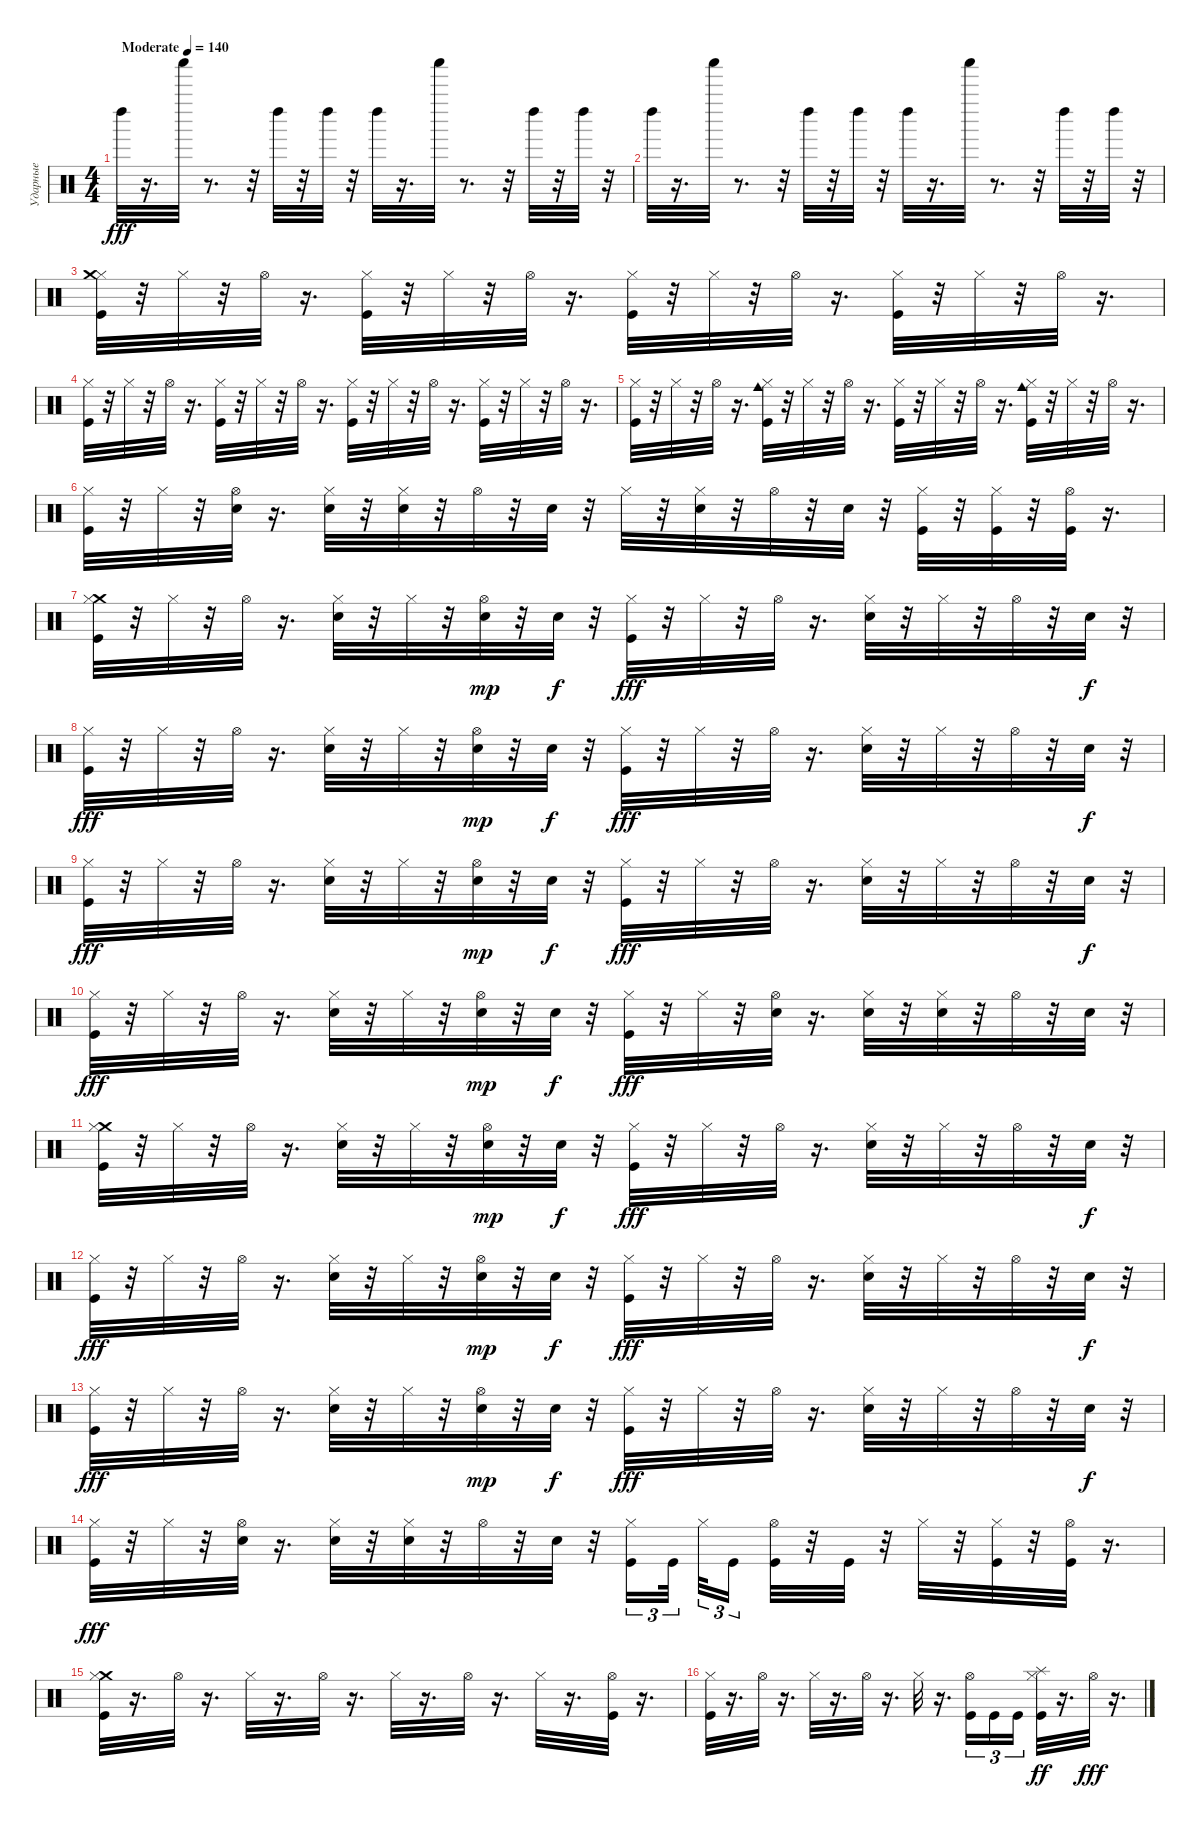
\track ("Ударные" "Ударные") {instrument percussion}
\staff {score}
\articulation defaults
\ts (4 4)
\tempo (140 "Moderate")
\clef neutral
\ks c "Left Maraca (hit)".32{dy fff}
r.16{d} "Shaker (hit)".32 r.8{d} r.32 "Left Maraca (hit)".32 r.32 "Left Maraca (hit)".32 r.32 "Left Maraca (hit)".32 r.16{d} "Shaker (hit)".32 r.8{d} r.32 "Left Maraca (hit)".32 r.32 "Left Maraca (hit)".32 r.32 |
"Left Maraca (hit)".32 r.16{d} "Shaker (hit)".32 r.8{d} r.32 "Left Maraca (hit)".32 r.32 "Left Maraca (hit)".32 r.32 "Left Maraca (hit)".32 r.16{d} "Shaker (hit)".32 r.8{d} r.32 "Left Maraca (hit)".32 r.32 "Left Maraca (hit)".32 r.32 |
("Hi-Hat (closed)" "Crash medium (hit)" "Kick (hit)").32 r.32 "Hi-Hat (closed)".32 r.32 "Hi-Hat (open)".32 r.16{d} ("Hi-Hat (closed)" "Kick (hit)").32 r.32 "Hi-Hat (closed)".32 r.32 "Hi-Hat (open)".32 r.16{d} ("Hi-Hat (closed)" "Kick (hit)").32 r.32 "Hi-Hat (closed)".32 r.32 "Hi-Hat (open)".32 r.16{d} ("Hi-Hat (closed)" "Kick (hit)").32 r.32 "Hi-Hat (closed)".32 r.32 "Hi-Hat (open)".32 r.16{d} |
("Kick (hit)" "Hi-Hat (closed)").32 r.32 "Hi-Hat (closed)".32 r.32 "Hi-Hat (open)".32 r.16{d} ("Hi-Hat (closed)" "Kick (hit)").32 r.32 "Hi-Hat (closed)".32 r.32 "Hi-Hat (open)".32 r.16{d} ("Hi-Hat (closed)" "Kick (hit)").32 r.32 "Hi-Hat (closed)".32 r.32 "Hi-Hat (open)".32 r.16{d} ("Hi-Hat (closed)" "Kick (hit)").32 r.32 "Hi-Hat (closed)".32 r.32 "Hi-Hat (open)".32 r.16{d} |
("Kick (hit)" "Hi-Hat (closed)").32 r.32 "Hi-Hat (closed)".32 r.32 "Hi-Hat (open)".32 r.16{d} ("Hi-Hat (closed)" "Kick (hit)" "Cowbell medium (hit)").32 r.32 "Hi-Hat (closed)".32 r.32 "Hi-Hat (open)".32 r.16{d} ("Hi-Hat (closed)" "Kick (hit)").32 r.32 "Hi-Hat (closed)".32 r.32 "Hi-Hat (open)".32 r.16{d} ("Hi-Hat (closed)" "Kick (hit)" "Cowbell medium (hit)").32 r.32 "Hi-Hat (closed)".32 r.32 "Hi-Hat (open)".32 r.16{d} |
("Kick (hit)" "Hi-Hat (closed)").32 r.32 "Hi-Hat (closed)".32 r.32 ("Hi-Hat (open)" "Electric Snare (hit)").32 r.16{d} ("Hi-Hat (closed)" "Electric Snare (hit)").32 r.32 ("Hi-Hat (closed)" "Electric Snare (hit)").32 r.32 "Hi-Hat (open)".32 r.32 "Electric Snare (hit)".32 r.32 "Hi-Hat (closed)".32 r.32 ("Hi-Hat (closed)" "Electric Snare (hit)").32 r.32 "Hi-Hat (open)".32 r.32 "Electric Snare (hit)".32 r.32 ("Hi-Hat (closed)" "Kick (hit)").32 r.32 ("Hi-Hat (closed)" "Kick (hit)").32 r.32 ("Hi-Hat (open)" "Kick (hit)").32 r.16{d} |
("Crash medium (hit)" "Kick (hit)" "Hi-Hat (closed)").32 r.32 "Hi-Hat (closed)".32 r.32 "Hi-Hat (open)".32 r.16{d} ("Electric Snare (hit)" "Hi-Hat (closed)").32 r.32 "Hi-Hat (closed)".32 r.32 ("Hi-Hat (open)" "Electric Snare (hit)").32{dy mp} r.32 "Electric Snare (hit)".32{dy f} r.32 ("Kick (hit)" "Hi-Hat (closed)").32{dy fff} r.32 "Hi-Hat (closed)".32 r.32 "Hi-Hat (open)".32 r.16{d} ("Electric Snare (hit)" "Hi-Hat (closed)").32 r.32 "Hi-Hat (closed)".32 r.32 "Hi-Hat (open)".32 r.32 "Electric Snare (hit)".32{dy f} r.32 |
("Hi-Hat (closed)" "Kick (hit)").32{dy fff} r.32 "Hi-Hat (closed)".32 r.32 "Hi-Hat (open)".32 r.16{d} ("Electric Snare (hit)" "Hi-Hat (closed)").32 r.32 "Hi-Hat (closed)".32 r.32 ("Hi-Hat (open)" "Electric Snare (hit)").32{dy mp} r.32 "Electric Snare (hit)".32{dy f} r.32 ("Kick (hit)" "Hi-Hat (closed)").32{dy fff} r.32 "Hi-Hat (closed)".32 r.32 "Hi-Hat (open)".32 r.16{d} ("Electric Snare (hit)" "Hi-Hat (closed)").32 r.32 "Hi-Hat (closed)".32 r.32 "Hi-Hat (open)".32 r.32 "Electric Snare (hit)".32{dy f} r.32 |
("Hi-Hat (closed)" "Kick (hit)").32{dy fff} r.32 "Hi-Hat (closed)".32 r.32 "Hi-Hat (open)".32 r.16{d} ("Electric Snare (hit)" "Hi-Hat (closed)").32 r.32 "Hi-Hat (closed)".32 r.32 ("Hi-Hat (open)" "Electric Snare (hit)").32{dy mp} r.32 "Electric Snare (hit)".32{dy f} r.32 ("Kick (hit)" "Hi-Hat (closed)").32{dy fff} r.32 "Hi-Hat (closed)".32 r.32 "Hi-Hat (open)".32 r.16{d} ("Electric Snare (hit)" "Hi-Hat (closed)").32 r.32 "Hi-Hat (closed)".32 r.32 "Hi-Hat (open)".32 r.32 "Electric Snare (hit)".32{dy f} r.32 |
("Hi-Hat (closed)" "Kick (hit)").32{dy fff} r.32 "Hi-Hat (closed)".32 r.32 "Hi-Hat (open)".32 r.16{d} ("Electric Snare (hit)" "Hi-Hat (closed)").32 r.32 "Hi-Hat (closed)".32 r.32 ("Hi-Hat (open)" "Electric Snare (hit)").32{dy mp} r.32 "Electric Snare (hit)".32{dy f} r.32 ("Kick (hit)" "Hi-Hat (closed)").32{dy fff} r.32 "Hi-Hat (closed)".32 r.32 ("Hi-Hat (open)" "Electric Snare (hit)").32 r.16{d} ("Hi-Hat (closed)" "Electric Snare (hit)").32 r.32 ("Hi-Hat (closed)" "Electric Snare (hit)").32 r.32 "Hi-Hat (open)".32 r.32 "Electric Snare (hit)".32 r.32 |
("Crash medium (hit)" "Kick (hit)" "Hi-Hat (closed)").32 r.32 "Hi-Hat (closed)".32 r.32 "Hi-Hat (open)".32 r.16{d} ("Electric Snare (hit)" "Hi-Hat (closed)").32 r.32 "Hi-Hat (closed)".32 r.32 ("Hi-Hat (open)" "Electric Snare (hit)").32{dy mp} r.32 "Electric Snare (hit)".32{dy f} r.32 ("Kick (hit)" "Hi-Hat (closed)").32{dy fff} r.32 "Hi-Hat (closed)".32 r.32 "Hi-Hat (open)".32 r.16{d} ("Electric Snare (hit)" "Hi-Hat (closed)").32 r.32 "Hi-Hat (closed)".32 r.32 "Hi-Hat (open)".32 r.32 "Electric Snare (hit)".32{dy f} r.32 |
("Hi-Hat (closed)" "Kick (hit)").32{dy fff} r.32 "Hi-Hat (closed)".32 r.32 "Hi-Hat (open)".32 r.16{d} ("Electric Snare (hit)" "Hi-Hat (closed)").32 r.32 "Hi-Hat (closed)".32 r.32 ("Hi-Hat (open)" "Electric Snare (hit)").32{dy mp} r.32 "Electric Snare (hit)".32{dy f} r.32 ("Kick (hit)" "Hi-Hat (closed)").32{dy fff} r.32 "Hi-Hat (closed)".32 r.32 "Hi-Hat (open)".32 r.16{d} ("Electric Snare (hit)" "Hi-Hat (closed)").32 r.32 "Hi-Hat (closed)".32 r.32 "Hi-Hat (open)".32 r.32 "Electric Snare (hit)".32{dy f} r.32 |
("Hi-Hat (closed)" "Kick (hit)").32{dy fff} r.32 "Hi-Hat (closed)".32 r.32 "Hi-Hat (open)".32 r.16{d} ("Electric Snare (hit)" "Hi-Hat (closed)").32 r.32 "Hi-Hat (closed)".32 r.32 ("Hi-Hat (open)" "Electric Snare (hit)").32{dy mp} r.32 "Electric Snare (hit)".32{dy f} r.32 ("Kick (hit)" "Hi-Hat (closed)").32{dy fff} r.32 "Hi-Hat (closed)".32 r.32 "Hi-Hat (open)".32 r.16{d} ("Electric Snare (hit)" "Hi-Hat (closed)").32 r.32 "Hi-Hat (closed)".32 r.32 "Hi-Hat (open)".32 r.32 "Electric Snare (hit)".32{dy f} r.32 |
("Hi-Hat (closed)" "Kick (hit)").32{dy fff} r.32 "Hi-Hat (closed)".32 r.32 ("Hi-Hat (open)" "Electric Snare (hit)").32 r.16{d} ("Hi-Hat (closed)" "Electric Snare (hit)").32 r.32 ("Hi-Hat (closed)" "Electric Snare (hit)").32 r.32 "Hi-Hat (open)".32 r.32 "Electric Snare (hit)".32 r.32 ("Hi-Hat (closed)" "Kick (hit)").16{tu (3 2)} "Kick (hit)".32{tu (3 2) beam splitsecondary} "Hi-Hat (closed)".32{tu (3 2)} "Kick (hit)".16{tu (3 2) beam splitsecondary} ("Hi-Hat (open)" "Kick (hit)").32 r.32 "Kick (hit)".32 r.32 "Hi-Hat (closed)".32 r.32 ("Hi-Hat (closed)" "Kick (hit)").32 r.32 ("Hi-Hat (open)" "Kick (hit)").32 r.16{d} |
("Crash medium (hit)" "Kick (hit)" "Hi-Hat (closed)").32 r.16{d} "Hi-Hat (open)".32 r.16{d} "Hi-Hat (closed)".32 r.16{d} "Hi-Hat (open)".32 r.16{d} "Hi-Hat (closed)".32 r.16{d} "Hi-Hat (open)".32 r.16{d} "Hi-Hat (closed)".32 r.16{d} ("Kick (hit)" "Hi-Hat (open)").32 r.16{d} |
("Kick (hit)" "Hi-Hat (closed)").32 r.16{d} "Hi-Hat (open)".32 r.16{d} "Hi-Hat (closed)".32 r.16{d} "Hi-Hat (open)".32 r.16{d} "Hi-Hat (closed)".32 r.16{d} ("Hi-Hat (open)" "Kick (hit)").16{tu (3 2)} "Kick (hit)".16{tu (3 2)} "Kick (hit)".16{tu (3 2)} ("Hi-Hat (closed)" "Kick (hit)" "Splash (hit)").32{dy ff} r.16{d} "Hi-Hat (open)".32{dy fff} r.16{d}
